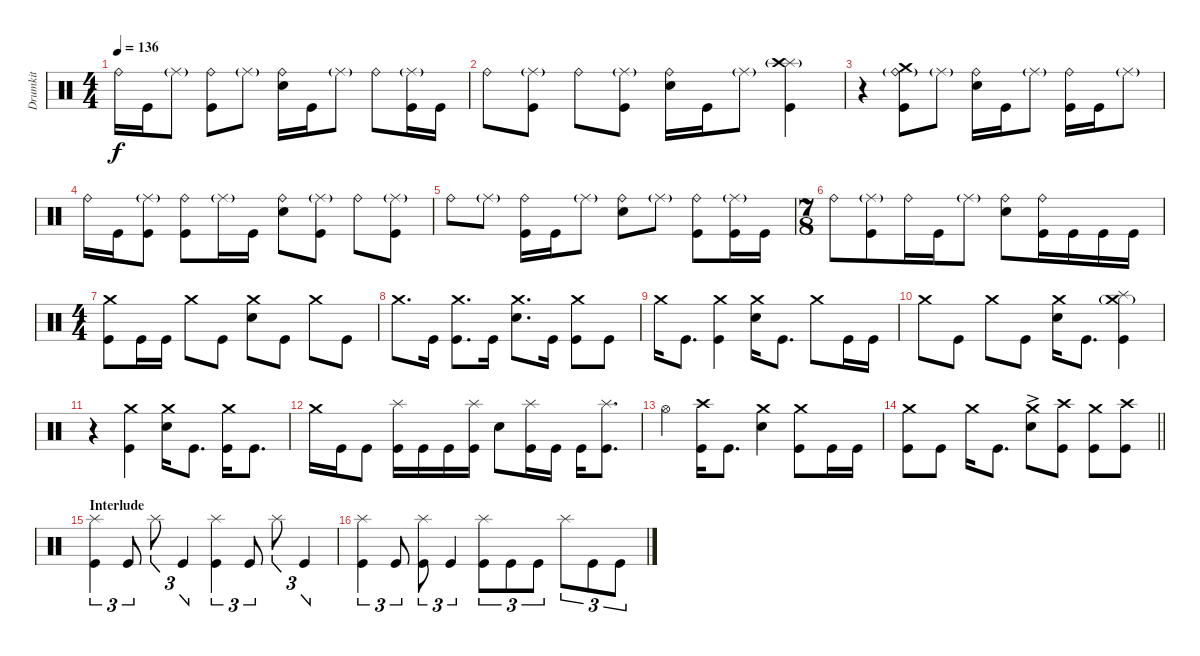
\track ("Drumkit" "Drumkit") {instrument percussion}
\staff {score}
\articulation defaults
\ts (4 4)
\tempo 136
\clef neutral
\ks c "Ride (bell)".16{dy f} "Kick (hit)".16 "Ride (middle)"{g}.8
("Ride (bell)" "Kick (hit)").8 "Ride (middle)"{g}.8 ("Ride (bell)" "Snare (hit) 2").16 "Kick (hit)".16 "Ride (middle)"{g}.8 "Ride (bell)".8 ("Kick (hit)" "Ride (middle)"{g}).16 "Kick (hit)".16 |
"Ride (bell)".8 ("Kick (hit)" "Ride (middle)"{g}).8 "Ride (bell)".8 ("Kick (hit)" "Ride (middle)"{g}).8 ("Ride (bell)" "Snare (hit) 2").16 "Kick (hit)".16 "Ride (middle)"{g}.8 ("Kick (hit)" "Splash (hit)" "Crash high (hit)"{g}).4 |
r.4 ("Crash medium (hit)" "Ride (bell)"{g} "Kick (hit)").8 "Ride (middle)"{g}.8 ("Ride (bell)" "Snare (hit) 2").16 "Kick (hit)".16 "Ride (middle)"{g}.8 ("Ride (bell)" "Kick (hit)").16 "Kick (hit)".16 "Ride (middle)"{g}.8 |
"Ride (bell)".16 "Kick (hit)".16 ("Kick (hit)" "Ride (middle)"{g}).8 ("Ride (bell)" "Kick (hit)").8 "Ride (middle)"{g}.16 "Kick (hit)".16 ("Ride (bell)" "Snare (hit) 2").8 ("Kick (hit)" "Ride (middle)"{g}).8 "Ride (bell)".8 ("Kick (hit)" "Ride (middle)"{g}).8 |
"Ride (bell)".8 "Ride (middle)"{g}.8 ("Ride (bell)" "Kick (hit)").16 "Kick (hit)".16 "Ride (middle)"{g}.8 ("Ride (bell)" "Snare (hit) 2").8 "Ride (middle)"{g}.8 ("Ride (bell)" "Kick (hit)").8 ("Kick (hit)" "Ride (middle)"{g}).16 "Kick (hit)".16 |
\ts (7 8)
"Ride (bell)".8 ("Ride (middle)"{g} "Kick (hit)").8 "Ride (bell)".16 "Kick (hit)".16 "Ride (middle)"{g}.8 ("Ride (bell)" "Snare (hit) 2").8 ("Kick (hit)" "Ride (bell)").16 "Kick (hit)".16 "Kick (hit)".16 "Kick (hit)".16 |
\ts (4 4)
("Kick (hit)" "Crash medium (hit)").8 "Kick (hit)".16 "Kick (hit)".16 "Crash medium (hit)".8 "Kick (hit)".8 ("Snare (hit) 2" "Crash medium (hit)").8 "Kick (hit)".8 "Crash medium (hit)".8 "Kick (hit)".8 |
"Crash medium (hit)".8{d} "Kick (hit)".16 ("Kick (hit)" "Crash medium (hit)").8{d} "Kick (hit)".16 ("Snare (hit) 2" "Crash medium (hit)").8{d} "Kick (hit)".16 ("Kick (hit)" "Crash medium (hit)").8 "Kick (hit)".8 |
"Crash medium (hit)".16 "Kick (hit)".8{d} ("Kick (hit)" "Crash medium (hit)").4 ("Snare (hit) 2" "Crash medium (hit)").16 "Kick (hit)".8{d} "Crash medium (hit)".8 "Kick (hit)".16 "Kick (hit)".16 |
"Crash medium (hit)".8 "Kick (hit)".8 "Crash medium (hit)".8 "Kick (hit)".8 ("Snare (hit) 2" "Crash medium (hit)").16 "Kick (hit)".8{d} ("Kick (hit)" "Splash (hit)" "Crash medium (hit)"{g}).4 |
r.4 ("Crash medium (hit)" "Kick (hit)").4 ("Snare (hit) 2" "Crash medium (hit)").16 "Kick (hit)".8{d} ("Kick (hit)" "Crash medium (hit)").16 "Kick (hit)".8{d} |
"Crash medium (hit)".16 "Kick (hit)".16 "Kick (hit)".8 ("Splash (hit)" "Kick (hit)").16 "Kick (hit)".16 "Kick (hit)".16 ("Splash (hit)" "Kick (hit)").16 "Snare (hit) 2".8 ("Kick (hit)" "Splash (hit)").16 "Kick (hit)".16 "Kick (hit)".16 ("Kick (hit)" "Splash (hit)").8{d} |
"Hi-Hat (open)".4 ("Kick (hit)" "Crash high (hit)").16 "Kick (hit)".8{d} ("Snare (hit) 2" "Crash medium (hit)").4 ("Kick (hit)" "Crash medium (hit)").8 "Kick (hit)".16 "Kick (hit)".16 |
\barLineRight lightlight
("Crash medium (hit)" "Kick (hit)").8 "Kick (hit)".8 "Crash medium (hit)".16 "Kick (hit)".8{d} ("Crash medium (hit)" "Snare (hit) 2"{ac}).8 ("Kick (hit)" "Crash high (hit)").8 ("Kick (hit)" "Crash medium (hit)").8 ("Kick (hit)" "Crash high (hit)").8 |
\section ("" "Interlude")
("Kick (hit)" "Splash (hit)").4{tu (3 2)} "Kick (hit)".8{tu (3 2)} "Splash (hit)".8{tu (3 2)} "Kick (hit)".4{tu (3 2)} ("Kick (hit)" "Splash (hit)").4{tu (3 2)} "Kick (hit)".8{tu (3 2)} "Splash (hit)".8{tu (3 2)} "Kick (hit)".4{tu (3 2)} |
("Kick (hit)" "Splash (hit)").4{tu (3 2)} "Kick (hit)".8{tu (3 2)} ("Splash (hit)" "Kick (hit)").8{tu (3 2)} "Kick (hit)".4{tu (3 2)} ("Kick (hit)" "Splash (hit)").8{tu (3 2)} "Kick (hit)".8{tu (3 2)} "Kick (hit)".8{tu (3 2)} "Splash (hit)".8{tu (3 2)} "Kick (hit)".8{tu (3 2)} "Kick (hit)".8{tu (3 2)}
